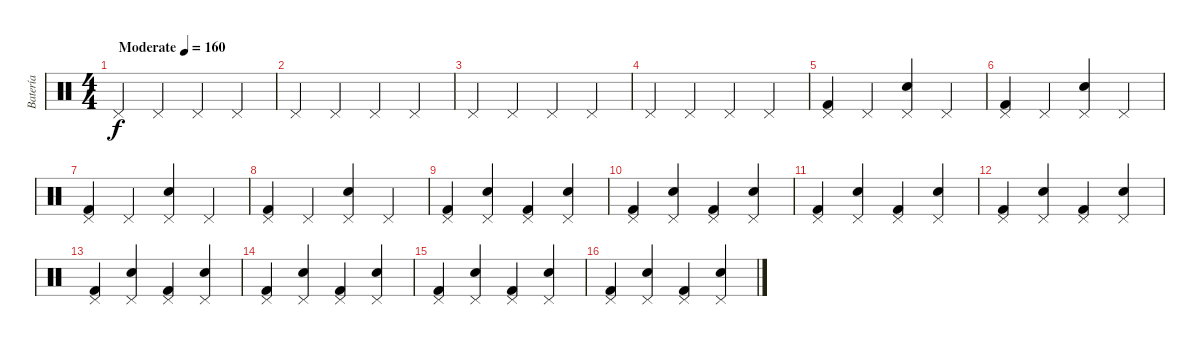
\track ("Batería " "Batería ") {instrument percussion}
\staff {score}
\articulation defaults
\ts (4 4)
\tempo (160 "Moderate")
\clef neutral
\ks c "Pedal Hi-Hat (hit)".4{dy f} "Pedal Hi-Hat (hit)".4 "Pedal Hi-Hat (hit)".4 "Pedal Hi-Hat (hit)".4
|
"Pedal Hi-Hat (hit)".4 "Pedal Hi-Hat (hit)".4 "Pedal Hi-Hat (hit)".4 "Pedal Hi-Hat (hit)".4 |
"Pedal Hi-Hat (hit)".4 "Pedal Hi-Hat (hit)".4 "Pedal Hi-Hat (hit)".4 "Pedal Hi-Hat (hit)".4 |
"Pedal Hi-Hat (hit)".4 "Pedal Hi-Hat (hit)".4 "Pedal Hi-Hat (hit)".4 "Pedal Hi-Hat (hit)".4 |
("Kick (hit) 2" "Pedal Hi-Hat (hit)").4 "Pedal Hi-Hat (hit)".4 ("Snare (hit) 2" "Pedal Hi-Hat (hit)").4 "Pedal Hi-Hat (hit)".4 |
("Kick (hit) 2" "Pedal Hi-Hat (hit)").4 "Pedal Hi-Hat (hit)".4 ("Snare (hit) 2" "Pedal Hi-Hat (hit)").4 "Pedal Hi-Hat (hit)".4 |
("Kick (hit) 2" "Pedal Hi-Hat (hit)").4 "Pedal Hi-Hat (hit)".4 ("Snare (hit) 2" "Pedal Hi-Hat (hit)").4 "Pedal Hi-Hat (hit)".4 |
("Kick (hit) 2" "Pedal Hi-Hat (hit)").4 "Pedal Hi-Hat (hit)".4 ("Snare (hit) 2" "Pedal Hi-Hat (hit)").4 "Pedal Hi-Hat (hit)".4 |
("Kick (hit) 2" "Pedal Hi-Hat (hit)").4 ("Snare (hit) 2" "Pedal Hi-Hat (hit)").4 ("Kick (hit) 2" "Pedal Hi-Hat (hit)").4 ("Snare (hit) 2" "Pedal Hi-Hat (hit)").4 |
("Kick (hit) 2" "Pedal Hi-Hat (hit)").4 ("Snare (hit) 2" "Pedal Hi-Hat (hit)").4 ("Kick (hit) 2" "Pedal Hi-Hat (hit)").4 ("Snare (hit) 2" "Pedal Hi-Hat (hit)").4 |
("Kick (hit) 2" "Pedal Hi-Hat (hit)").4 ("Snare (hit) 2" "Pedal Hi-Hat (hit)").4 ("Kick (hit) 2" "Pedal Hi-Hat (hit)").4 ("Snare (hit) 2" "Pedal Hi-Hat (hit)").4 |
("Kick (hit) 2" "Pedal Hi-Hat (hit)").4 ("Snare (hit) 2" "Pedal Hi-Hat (hit)").4 ("Kick (hit) 2" "Pedal Hi-Hat (hit)").4 ("Snare (hit) 2" "Pedal Hi-Hat (hit)").4 |
("Kick (hit) 2" "Pedal Hi-Hat (hit)").4 ("Snare (hit) 2" "Pedal Hi-Hat (hit)").4 ("Kick (hit) 2" "Pedal Hi-Hat (hit)").4 ("Snare (hit) 2" "Pedal Hi-Hat (hit)").4 |
("Kick (hit) 2" "Pedal Hi-Hat (hit)").4 ("Snare (hit) 2" "Pedal Hi-Hat (hit)").4 ("Kick (hit) 2" "Pedal Hi-Hat (hit)").4 ("Snare (hit) 2" "Pedal Hi-Hat (hit)").4 |
("Kick (hit) 2" "Pedal Hi-Hat (hit)").4 ("Snare (hit) 2" "Pedal Hi-Hat (hit)").4 ("Kick (hit) 2" "Pedal Hi-Hat (hit)").4 ("Snare (hit) 2" "Pedal Hi-Hat (hit)").4 |
("Kick (hit) 2" "Pedal Hi-Hat (hit)").4 ("Snare (hit) 2" "Pedal Hi-Hat (hit)").4 ("Kick (hit) 2" "Pedal Hi-Hat (hit)").4 ("Snare (hit) 2" "Pedal Hi-Hat (hit)").4
